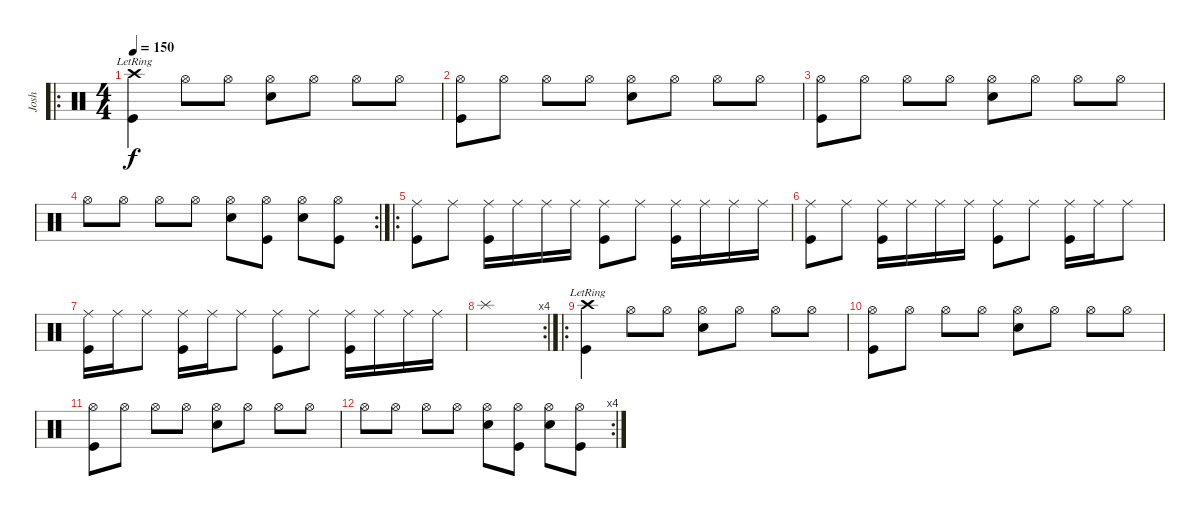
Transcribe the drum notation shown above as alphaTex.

\track ("Josh" "Josh") {instrument percussion}
\staff {score}
\articulation defaults
\ro
\ts (4 4)
\tempo 150
\clef neutral
\ks c
("Crash high (hit)"{lr} "Kick (hit)").4{dy f} "Hi-Hat (open)".8 "Hi-Hat (open)".8 ("Hi-Hat (open)" "Snare (hit) 2").8 "Hi-Hat (open)".8 "Hi-Hat (open)".8 "Hi-Hat (open)".8 |
("Hi-Hat (open)" "Kick (hit)").8 "Hi-Hat (open)".8 "Hi-Hat (open)".8 "Hi-Hat (open)".8 ("Hi-Hat (open)" "Snare (hit) 2").8 "Hi-Hat (open)".8 "Hi-Hat (open)".8 "Hi-Hat (open)".8 |
("Hi-Hat (open)" "Kick (hit)").8 "Hi-Hat (open)".8 "Hi-Hat (open)".8 "Hi-Hat (open)".8 ("Hi-Hat (open)" "Snare (hit) 2").8 "Hi-Hat (open)".8 "Hi-Hat (open)".8 "Hi-Hat (open)".8 |
\rc 2 "Hi-Hat (open)".8 "Hi-Hat (open)".8 "Hi-Hat (open)".8 "Hi-Hat (open)".8
("Hi-Hat (open)" "Snare (hit) 2").8 ("Hi-Hat (open)" "Kick (hit)").8 ("Hi-Hat (open)" "Snare (hit) 2").8 ("Hi-Hat (open)" "Kick (hit)").8 |
\ro
("Ride (middle)" "Kick (hit)").8 "Ride (middle)".8 ("Ride (middle)" "Kick (hit)").16 "Ride (middle)".16 "Ride (middle)".16 "Ride (middle)".16 ("Ride (middle)" "Kick (hit)").8 "Ride (middle)".8 ("Ride (middle)" "Kick (hit)").16 "Ride (middle)".16 "Ride (middle)".16 "Ride (middle)".16 |
("Ride (middle)" "Kick (hit)").8 "Ride (middle)".8 ("Ride (middle)" "Kick (hit)").16 "Ride (middle)".16 "Ride (middle)".16 "Ride (middle)".16 ("Ride (middle)" "Kick (hit)").8 "Ride (middle)".8 ("Ride (middle)" "Kick (hit)").16 "Ride (middle)".16 "Ride (middle)".8 |
("Ride (middle)" "Kick (hit)").16 "Ride (middle)".16 "Ride (middle)".8 ("Ride (middle)" "Kick (hit)").16 "Ride (middle)".16 "Ride (middle)".8 ("Ride (middle)" "Kick (hit)").8 "Ride (middle)".8 ("Ride (middle)" "Kick (hit)").16 "Ride (middle)".16 "Ride (middle)".16 "Ride (middle)".16 |
\rc 4 "Splash (hit)".1
|
\ro
("Crash high (hit)"{lr} "Kick (hit)").4 "Hi-Hat (open)".8 "Hi-Hat (open)".8 ("Hi-Hat (open)" "Snare (hit) 2").8 "Hi-Hat (open)".8 "Hi-Hat (open)".8 "Hi-Hat (open)".8 |
("Hi-Hat (open)" "Kick (hit)").8 "Hi-Hat (open)".8 "Hi-Hat (open)".8 "Hi-Hat (open)".8 ("Hi-Hat (open)" "Snare (hit) 2").8 "Hi-Hat (open)".8 "Hi-Hat (open)".8 "Hi-Hat (open)".8 |
("Hi-Hat (open)" "Kick (hit)").8 "Hi-Hat (open)".8 "Hi-Hat (open)".8 "Hi-Hat (open)".8 ("Hi-Hat (open)" "Snare (hit) 2").8 "Hi-Hat (open)".8 "Hi-Hat (open)".8 "Hi-Hat (open)".8 |
\rc 4 "Hi-Hat (open)".8 "Hi-Hat (open)".8 "Hi-Hat (open)".8 "Hi-Hat (open)".8
("Hi-Hat (open)" "Snare (hit) 2").8 ("Hi-Hat (open)" "Kick (hit)").8 ("Hi-Hat (open)" "Snare (hit) 2").8 ("Hi-Hat (open)" "Kick (hit)").8
